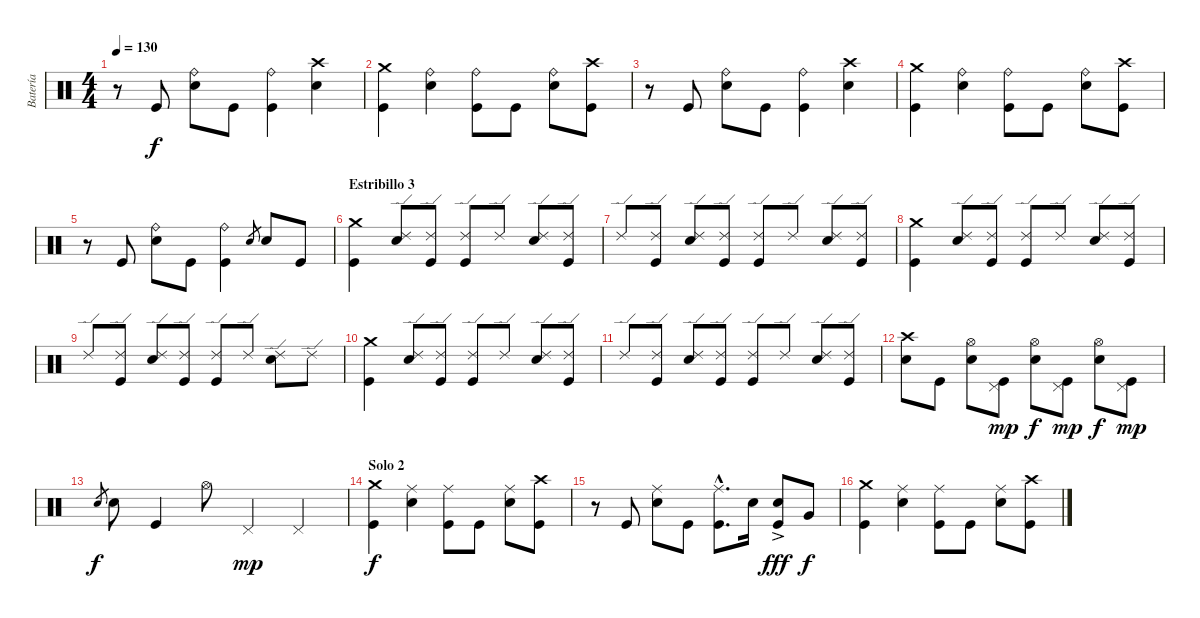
\track ("Batería" "Batería") {instrument percussion}
\staff {score}
\articulation defaults
\ts (4 4)
\tempo 130
\clef neutral
\ks c
r.8{dy f} "Kick (hit)".8 ("Electric Snare (hit)" "Ride (bell)").8 "Kick (hit)".8 ("Kick (hit)" "Ride (bell)").4 ("Electric Snare (hit)" "Crash high (hit)").4 |
("Kick (hit)" "Crash medium (hit)").4 ("Electric Snare (hit)" "Ride (bell)").4 ("Kick (hit)" "Ride (bell)").8 "Kick (hit)".8 ("Electric Snare (hit)" "Ride (bell)").8 ("Kick (hit)" "Crash high (hit)").8 |
r.8 "Kick (hit)".8 ("Electric Snare (hit)" "Ride (bell)").8 "Kick (hit)".8 ("Kick (hit)" "Ride (bell)").4 ("Electric Snare (hit)" "Crash high (hit)").4 |
("Kick (hit)" "Crash medium (hit)").4 ("Electric Snare (hit)" "Ride (bell)").4 ("Kick (hit)" "Ride (bell)").8 "Kick (hit)".8 ("Electric Snare (hit)" "Ride (bell)").8 ("Kick (hit)" "Crash high (hit)").8 |
r.8 "Kick (hit)".8 ("Electric Snare (hit)" "Ride (bell)").8 "Kick (hit)".8 ("Kick (hit)" "Ride (bell)").4 "Electric Snare (hit)".8{gr} "Electric Snare (hit)".8 "Kick (hit)".8 |
\section ("" "Estribillo 3")
("Kick (hit)" "Crash medium (hit)").4 ("Electric Snare (hit)" "Ride (edge) 2").8 ("Kick (hit)" "Ride (edge) 2").8 ("Kick (hit)" "Ride (edge) 2").8 "Ride (edge) 2".8 ("Electric Snare (hit)" "Ride (edge) 2").8 ("Kick (hit)" "Ride (edge) 2").8 |
"Ride (edge) 2".8 ("Kick (hit)" "Ride (edge) 2").8 ("Electric Snare (hit)" "Ride (edge) 2").8 ("Kick (hit)" "Ride (edge) 2").8 ("Kick (hit)" "Ride (edge) 2").8 "Ride (edge) 2".8 ("Electric Snare (hit)" "Ride (edge) 2").8 ("Kick (hit)" "Ride (edge) 2").8 |
("Kick (hit)" "Crash medium (hit)").4 ("Electric Snare (hit)" "Ride (edge) 2").8 ("Kick (hit)" "Ride (edge) 2").8 ("Kick (hit)" "Ride (edge) 2").8 "Ride (edge) 2".8 ("Electric Snare (hit)" "Ride (edge) 2").8 ("Kick (hit)" "Ride (edge) 2").8 |
"Ride (edge) 2".8 ("Kick (hit)" "Ride (edge) 2").8 ("Electric Snare (hit)" "Ride (edge) 2").8 ("Kick (hit)" "Ride (edge) 2").8 ("Kick (hit)" "Ride (edge) 2").8 "Ride (edge) 2".8 ("Electric Snare (hit)" "Ride (edge) 2").8 "Ride (edge) 2".8 |
("Kick (hit)" "Crash medium (hit)").4 ("Electric Snare (hit)" "Ride (edge) 2").8 ("Kick (hit)" "Ride (edge) 2").8 ("Kick (hit)" "Ride (edge) 2").8 "Ride (edge) 2".8 ("Electric Snare (hit)" "Ride (edge) 2").8 ("Kick (hit)" "Ride (edge) 2").8 |
"Ride (edge) 2".8 ("Kick (hit)" "Ride (edge) 2").8 ("Electric Snare (hit)" "Ride (edge) 2").8 ("Kick (hit)" "Ride (edge) 2").8 ("Kick (hit)" "Ride (edge) 2").8 "Ride (edge) 2".8 ("Electric Snare (hit)" "Ride (edge) 2").8 ("Kick (hit)" "Ride (edge) 2").8 |
("Electric Snare (hit)" "Crash high (hit)").8 "Kick (hit)".8 ("Electric Snare (hit)" "Hi-Hat (open)").8 ("Kick (hit)" "Pedal Hi-Hat (hit)").8{dy mp} ("Electric Snare (hit)" "Hi-Hat (open)").8{dy f} ("Kick (hit)" "Pedal Hi-Hat (hit)").8{dy mp} ("Electric Snare (hit)" "Hi-Hat (open)").8{dy f} ("Kick (hit)" "Pedal Hi-Hat (hit)").8{dy mp} |
"Electric Snare (hit)".8{gr dy f} "Electric Snare (hit)".8 "Kick (hit)".4 "Hi-Hat (open)".8 "Pedal Hi-Hat (hit)".4{dy mp} "Pedal Hi-Hat (hit)".4 |
\section ("" "Solo 2")
("Kick (hit)" "Crash medium (hit)").4{dy f} ("Electric Snare (hit)" "Ride (middle)").4 ("Kick (hit)" "Ride (middle)").8 "Kick (hit)".8 ("Electric Snare (hit)" "Ride (middle)").8 ("Kick (hit)" "Crash high (hit)").8 |
r.8 "Kick (hit)".8 ("Electric Snare (hit)" "Ride (middle)").8 "Kick (hit)".8 ("Kick (hit)"{hac} "Ride (middle)"{hac}).8{d} "Electric Snare (hit)".16 ("Kick (hit)" "Electric Snare (hit)"{ac}).8{dy fff} "Very Low Tom (hit)".8{dy f} |
("Kick (hit)" "Crash medium (hit)").4 ("Electric Snare (hit)" "Ride (middle)").4 ("Kick (hit)" "Ride (middle)").8 "Kick (hit)".8 ("Electric Snare (hit)" "Ride (middle)").8 ("Kick (hit)" "Crash high (hit)").8
